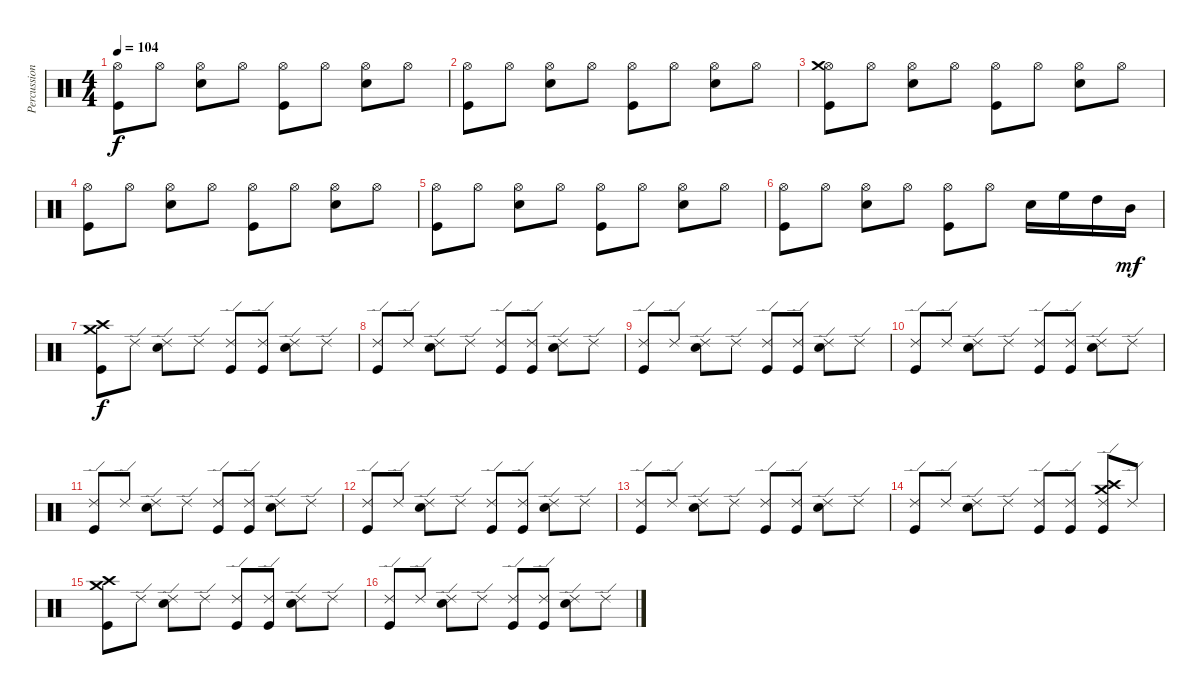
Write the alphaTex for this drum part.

\track ("Percussion" "Percussion") {instrument percussion}
\staff {score}
\articulation defaults
\ts (4 4)
\tempo 104
\clef neutral
\ks c
("Hi-Hat (open)" "Kick (hit)").8{dy f} "Hi-Hat (open)".8 ("Hi-Hat (open)" "Snare (hit) 2").8 "Hi-Hat (open)".8 ("Hi-Hat (open)" "Kick (hit)").8 "Hi-Hat (open)".8 ("Hi-Hat (open)" "Snare (hit) 2").8 "Hi-Hat (open)".8 |
("Hi-Hat (open)" "Kick (hit)").8 "Hi-Hat (open)".8 ("Hi-Hat (open)" "Snare (hit) 2").8 "Hi-Hat (open)".8 ("Hi-Hat (open)" "Kick (hit)").8 "Hi-Hat (open)".8 ("Hi-Hat (open)" "Snare (hit) 2").8 "Hi-Hat (open)".8 |
("Hi-Hat (open)" "Crash medium (hit)" "Kick (hit)").8 "Hi-Hat (open)".8 ("Hi-Hat (open)" "Snare (hit) 2").8 "Hi-Hat (open)".8 ("Hi-Hat (open)" "Kick (hit)").8 "Hi-Hat (open)".8 ("Hi-Hat (open)" "Snare (hit) 2").8 "Hi-Hat (open)".8 |
("Hi-Hat (open)" "Kick (hit)").8 "Hi-Hat (open)".8 ("Hi-Hat (open)" "Snare (hit) 2").8 "Hi-Hat (open)".8 ("Hi-Hat (open)" "Kick (hit)").8 "Hi-Hat (open)".8 ("Hi-Hat (open)" "Snare (hit) 2").8 "Hi-Hat (open)".8 |
("Hi-Hat (open)" "Kick (hit)").8 "Hi-Hat (open)".8 ("Hi-Hat (open)" "Snare (hit) 2").8 "Hi-Hat (open)".8 ("Hi-Hat (open)" "Kick (hit)").8 "Hi-Hat (open)".8 ("Hi-Hat (open)" "Snare (hit) 2").8 "Hi-Hat (open)".8 |
("Hi-Hat (open)" "Kick (hit)").8 "Hi-Hat (open)".8 ("Hi-Hat (open)" "Snare (hit) 2").8 "Hi-Hat (open)".8 ("Hi-Hat (open)" "Kick (hit)").8 "Hi-Hat (open)".8 "Snare (hit) 2".16 "High Floor Tom (hit)".16 "High Tom (hit)".16 "Mid Tom (hit)".16{dy mf} |
("Crash high (hit)" "Crash medium (hit)" "Kick (hit)").8{dy f} "Ride (edge) 2".8 ("Ride (edge) 2" "Snare (hit) 2").8 "Ride (edge) 2".8 ("Ride (edge) 2" "Kick (hit)").8 ("Ride (edge) 2" "Kick (hit)").8 ("Ride (edge) 2" "Snare (hit) 2").8 "Ride (edge) 2".8 |
("Ride (edge) 2" "Kick (hit)").8 "Ride (edge) 2".8 ("Ride (edge) 2" "Snare (hit) 2").8 "Ride (edge) 2".8 ("Ride (edge) 2" "Kick (hit)").8 ("Ride (edge) 2" "Kick (hit)").8 ("Ride (edge) 2" "Snare (hit) 2").8 "Ride (edge) 2".8 |
("Ride (edge) 2" "Kick (hit)").8 "Ride (edge) 2".8 ("Ride (edge) 2" "Snare (hit) 2").8 "Ride (edge) 2".8 ("Ride (edge) 2" "Kick (hit)").8 ("Ride (edge) 2" "Kick (hit)").8 ("Ride (edge) 2" "Snare (hit) 2").8 "Ride (edge) 2".8 |
("Ride (edge) 2" "Kick (hit)").8 "Ride (edge) 2".8 ("Ride (edge) 2" "Snare (hit) 2").8 "Ride (edge) 2".8 ("Ride (edge) 2" "Kick (hit)").8 ("Ride (edge) 2" "Kick (hit)").8 ("Ride (edge) 2" "Snare (hit) 2").8 "Ride (edge) 2".8 |
("Ride (edge) 2" "Kick (hit)").8 "Ride (edge) 2".8 ("Ride (edge) 2" "Snare (hit) 2").8 "Ride (edge) 2".8 ("Ride (edge) 2" "Kick (hit)").8 ("Ride (edge) 2" "Kick (hit)").8 ("Ride (edge) 2" "Snare (hit) 2").8 "Ride (edge) 2".8 |
("Ride (edge) 2" "Kick (hit)").8 "Ride (edge) 2".8 ("Ride (edge) 2" "Snare (hit) 2").8 "Ride (edge) 2".8 ("Ride (edge) 2" "Kick (hit)").8 ("Ride (edge) 2" "Kick (hit)").8 ("Ride (edge) 2" "Snare (hit) 2").8 "Ride (edge) 2".8 |
("Ride (edge) 2" "Kick (hit)").8 "Ride (edge) 2".8 ("Ride (edge) 2" "Snare (hit) 2").8 "Ride (edge) 2".8 ("Ride (edge) 2" "Kick (hit)").8 ("Ride (edge) 2" "Kick (hit)").8 ("Ride (edge) 2" "Snare (hit) 2").8 "Ride (edge) 2".8 |
("Ride (edge) 2" "Kick (hit)").8 "Ride (edge) 2".8 ("Ride (edge) 2" "Snare (hit) 2").8 "Ride (edge) 2".8 ("Ride (edge) 2" "Kick (hit)").8 ("Ride (edge) 2" "Kick (hit)").8 ("Ride (edge) 2" "Crash medium (hit)" "Crash high (hit)" "Kick (hit)").8 "Ride (edge) 2".8 |
("Crash high (hit)" "Crash medium (hit)" "Kick (hit)").8 "Ride (edge) 2".8 ("Ride (edge) 2" "Snare (hit) 2").8 "Ride (edge) 2".8 ("Ride (edge) 2" "Kick (hit)").8 ("Ride (edge) 2" "Kick (hit)").8 ("Ride (edge) 2" "Snare (hit) 2").8 "Ride (edge) 2".8 |
("Ride (edge) 2" "Kick (hit)").8 "Ride (edge) 2".8 ("Ride (edge) 2" "Snare (hit) 2").8 "Ride (edge) 2".8 ("Ride (edge) 2" "Kick (hit)").8 ("Ride (edge) 2" "Kick (hit)").8 ("Ride (edge) 2" "Snare (hit) 2").8 "Ride (edge) 2".8
